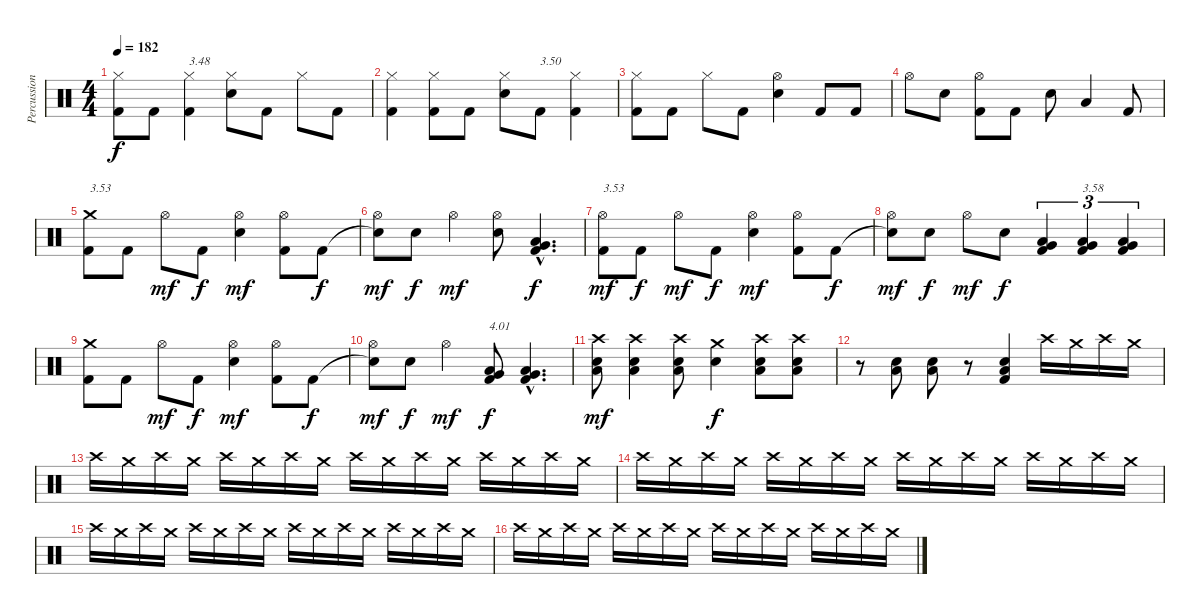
\track ("Percussions" "Percussion") {instrument percussion}
\staff {score}
\articulation defaults
\ts (4 4)
\tempo 182
\clef neutral
\ks c
("Kick (hit) 2"{t} "Hi-Hat (closed)").8{dy f} "Kick (hit) 2".8 ("Kick (hit) 2" "Hi-Hat (closed)").4{txt "3.48"} ("Electric Snare (hit)" "Hi-Hat (closed)").8 "Kick (hit) 2".8 "Hi-Hat (closed)".8 "Kick (hit) 2".8 |
("Kick (hit) 2" "Hi-Hat (closed)").4 ("Kick (hit) 2" "Hi-Hat (closed)").8 "Kick (hit) 2".8 ("Electric Snare (hit)" "Hi-Hat (closed)").8 "Kick (hit) 2".8{txt "3.50"} ("Kick (hit) 2" "Hi-Hat (closed)").4 |
("Kick (hit) 2" "Hi-Hat (closed)").8 "Kick (hit) 2".8 "Hi-Hat (closed)".8 "Kick (hit) 2".8 ("Electric Snare (hit)" "Hi-Hat (open)").4 "Kick (hit) 2".8 "Kick (hit) 2".8 |
"Hi-Hat (open)".8 "Electric Snare (hit)".8 ("Kick (hit) 2" "Hi-Hat (open)").8 "Kick (hit) 2".8 "Electric Snare (hit)".8 "Low Floor Tom (hit)".4 "Kick (hit) 2".8 |
("Kick (hit) 2" "Crash medium (hit)").8{txt "3.53"} "Kick (hit) 2".8 "Hi-Hat (open)".8{dy mf} "Kick (hit) 2".8{dy f} ("Electric Snare (hit)" "Hi-Hat (open)").4{dy mf} ("Kick (hit) 2" "Hi-Hat (open)").8 "Kick (hit) 2".8{dy f} |
("Snare (hit)"{t} "Hi-Hat (open)").8{dy mf} "Electric Snare (hit)".8{dy f} "Hi-Hat (open)".4{dy mf} ("Electric Snare (hit)" "Hi-Hat (open)").8 ("Kick (hit) 2"{hac} "Low Floor Tom (hit)"{hac} "Very Low Tom (hit)"{hac}).4{d dy f} |
("Kick (hit) 2" "Hi-Hat (open)").8{txt "3.53" dy mf} "Kick (hit) 2".8{dy f} "Hi-Hat (open)".8{dy mf} "Kick (hit) 2".8{dy f} ("Electric Snare (hit)" "Hi-Hat (open)").4{dy mf} ("Kick (hit) 2" "Hi-Hat (open)").8 "Kick (hit) 2".8{dy f} |
("Snare (hit)"{t} "Hi-Hat (open)").8{dy mf} "Electric Snare (hit)".8{dy f} "Hi-Hat (open)".8{dy mf} "Electric Snare (hit)".8{dy f} ("Kick (hit) 2" "Low Floor Tom (hit)" "Very Low Tom (hit)").4{tu (3 2)} ("Kick (hit) 2" "Low Floor Tom (hit)" "Very Low Tom (hit)").4{tu (3 2) txt "3.58"} ("Kick (hit) 2" "Low Floor Tom (hit)" "Very Low Tom (hit)").4{tu (3 2)} |
("Kick (hit) 2" "Crash medium (hit)").8 "Kick (hit) 2".8 "Hi-Hat (open)".8{dy mf} "Kick (hit) 2".8{dy f} ("Electric Snare (hit)" "Hi-Hat (open)").4{dy mf} ("Kick (hit) 2" "Hi-Hat (open)").8 "Kick (hit) 2".8{dy f} |
("Snare (hit)"{t} "Hi-Hat (open)").8{dy mf} "Electric Snare (hit)".8{dy f} "Hi-Hat (open)".4{dy mf} ("Kick (hit) 2" "Low Floor Tom (hit)" "Very Low Tom (hit)").8{txt "4.01" dy f} ("Kick (hit) 2"{hac} "Low Floor Tom (hit)"{hac} "Very Low Tom (hit)"{hac}).4{d} |
("Low Floor Tom (hit)" "Electric Snare (hit)" "Crash high (hit)").8{dy mf} ("Low Floor Tom (hit)" "Electric Snare (hit)" "Crash high (hit)").4 ("Low Floor Tom (hit)" "Electric Snare (hit)" "Crash high (hit)").8 ("Electric Snare (hit)" "Crash medium (hit)").4{dy f} ("Low Floor Tom (hit)" "Electric Snare (hit)" "Crash high (hit)").8 ("Low Floor Tom (hit)" "Electric Snare (hit)" "Crash high (hit)").8 |
r.8 ("Low Floor Tom (hit)" "Electric Snare (hit)").8 ("Low Floor Tom (hit)" "Electric Snare (hit)").8 r.8 ("Kick (hit) 2" "Low Floor Tom (hit)" "Electric Snare (hit)").4 "Crash high (hit)".16{volume 3} "Crash medium (hit)".16{volume 9} "Crash high (hit)".16 "Crash medium (hit)".16 |
"Crash high (hit)".16 "Crash medium (hit)".16 "Crash high (hit)".16 "Crash medium (hit)".16 "Crash high (hit)".16 "Crash medium (hit)".16 "Crash high (hit)".16 "Crash medium (hit)".16 "Crash high (hit)".16 "Crash medium (hit)".16 "Crash high (hit)".16 "Crash medium (hit)".16 "Crash high (hit)".16 "Crash medium (hit)".16 "Crash high (hit)".16 "Crash medium (hit)".16 |
"Crash high (hit)".16 "Crash medium (hit)".16 "Crash high (hit)".16 "Crash medium (hit)".16 "Crash high (hit)".16 "Crash medium (hit)".16 "Crash high (hit)".16 "Crash medium (hit)".16 "Crash high (hit)".16 "Crash medium (hit)".16 "Crash high (hit)".16 "Crash medium (hit)".16 "Crash high (hit)".16 "Crash medium (hit)".16 "Crash high (hit)".16 "Crash medium (hit)".16 |
"Crash high (hit)".16 "Crash medium (hit)".16 "Crash high (hit)".16 "Crash medium (hit)".16 "Crash high (hit)".16 "Crash medium (hit)".16 "Crash high (hit)".16 "Crash medium (hit)".16 "Crash high (hit)".16 "Crash medium (hit)".16 "Crash high (hit)".16 "Crash medium (hit)".16 "Crash high (hit)".16 "Crash medium (hit)".16 "Crash high (hit)".16 "Crash medium (hit)".16 |
"Crash high (hit)".16 "Crash medium (hit)".16 "Crash high (hit)".16 "Crash medium (hit)".16 "Crash high (hit)".16 "Crash medium (hit)".16 "Crash high (hit)".16 "Crash medium (hit)".16 "Crash high (hit)".16{volume 4} "Crash medium (hit)".16 "Crash high (hit)".16 "Crash medium (hit)".16 "Crash high (hit)".16 "Crash medium (hit)".16 "Crash high (hit)".16 "Crash medium (hit)".16
